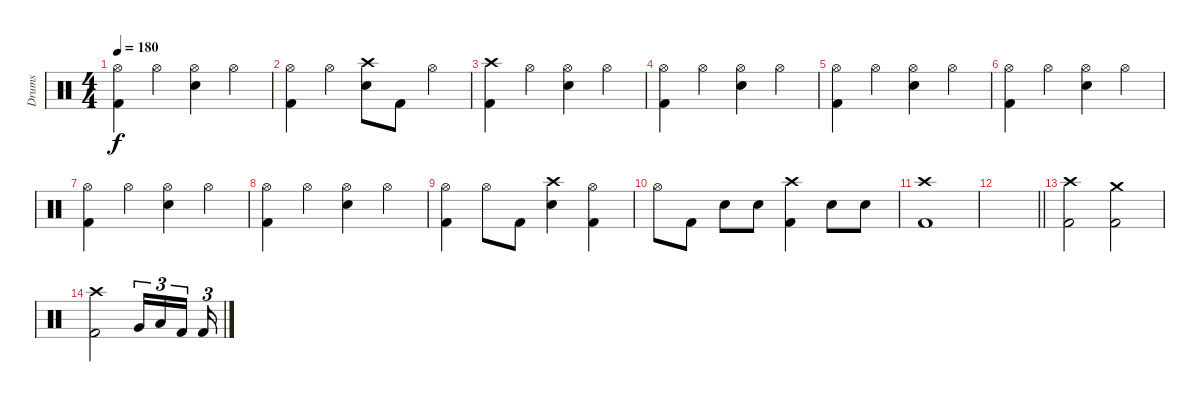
\track ("Drums" "Drums") {instrument percussion}
\staff {score}
\articulation defaults
\ts (4 4)
\tempo 180
\clef neutral
\ks c
("Hi-Hat (open)" "Kick (hit) 2").4{dy f} "Hi-Hat (open)".4 ("Hi-Hat (open)" "Electric Snare (hit)").4 "Hi-Hat (open)".4 |
("Hi-Hat (open)" "Kick (hit) 2").4 "Hi-Hat (open)".4 ("Crash high (hit)" "Electric Snare (hit)").8 "Kick (hit) 2".8 "Hi-Hat (open)".4 |
("Crash high (hit)" "Kick (hit) 2").4 "Hi-Hat (open)".4 ("Hi-Hat (open)" "Electric Snare (hit)").4 "Hi-Hat (open)".4 |
("Hi-Hat (open)" "Kick (hit) 2").4 "Hi-Hat (open)".4 ("Hi-Hat (open)" "Electric Snare (hit)").4 "Hi-Hat (open)".4 |
("Hi-Hat (open)" "Kick (hit) 2").4 "Hi-Hat (open)".4 ("Hi-Hat (open)" "Electric Snare (hit)").4 "Hi-Hat (open)".4 |
("Hi-Hat (open)" "Kick (hit) 2").4 "Hi-Hat (open)".4 ("Hi-Hat (open)" "Electric Snare (hit)").4 "Hi-Hat (open)".4 |
("Hi-Hat (open)" "Kick (hit) 2").4 "Hi-Hat (open)".4 ("Hi-Hat (open)" "Electric Snare (hit)").4 "Hi-Hat (open)".4 |
("Hi-Hat (open)" "Kick (hit) 2").4 "Hi-Hat (open)".4 ("Hi-Hat (open)" "Electric Snare (hit)").4 "Hi-Hat (open)".4 |
("Hi-Hat (open)" "Kick (hit) 2").4 "Hi-Hat (open)".8 "Kick (hit) 2".8 ("Crash high (hit)" "Electric Snare (hit)").4 ("Hi-Hat (open)" "Kick (hit) 2").4 |
"Hi-Hat (open)".8 "Kick (hit) 2".8 "Electric Snare (hit)".8 "Electric Snare (hit)".8 ("Crash high (hit)" "Kick (hit) 2").4 "Electric Snare (hit)".8 "Electric Snare (hit)".8 |
("Crash high (hit)" "Kick (hit) 2").1 |
\barLineRight lightlight
|
("Crash high (hit)" "Kick (hit) 2").2 ("Crash medium (hit)" "Kick (hit) 2").2 |
("Crash high (hit)" "Kick (hit) 2").2 "Very Low Tom (hit)".16{tu (3 2)} "Low Floor Tom (hit)".16{tu (3 2)} "Kick (hit) 2".16{tu (3 2) beam splitsecondary} "Kick (hit) 2".16{tu (3 2)}
